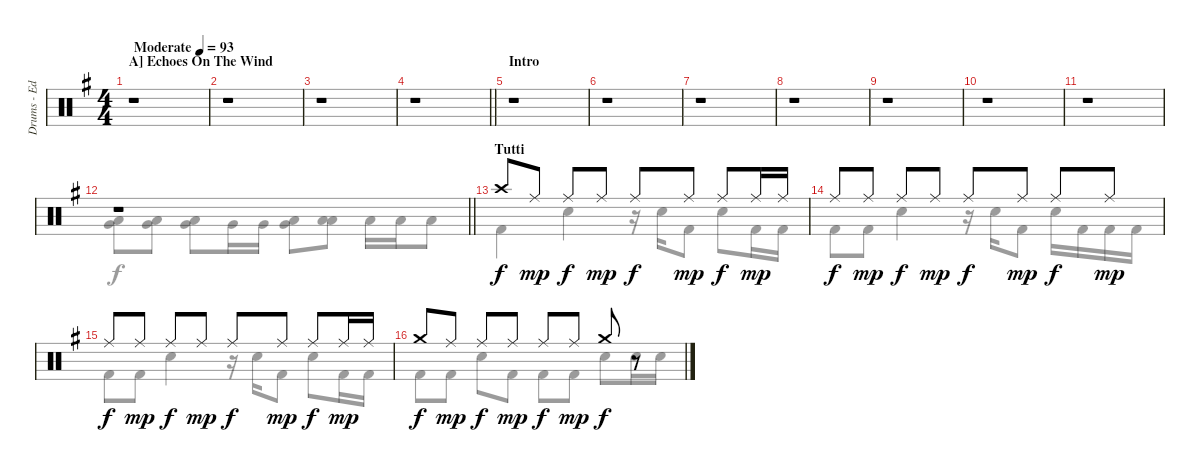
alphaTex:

\track ("Drums - Ed Warby" "Drums - Ed") {instrument percussion}
\staff {score}
\articulation defaults
\voice
\ts (4 4)
\section ("" "A] Echoes On The Wind")
\tempo (93 "Moderate")
\clef neutral
\ks eminor
r.1{dy f} |
r.1 |
r.1 |
\barLineRight lightlight
r.1 |
\section ("" "Intro")
r.1 |
r.1 |
r.1 |
r.1 |
r.1 |
r.1 |
r.1 |
\barLineRight lightlight
r.1 |
\section ("" "Tutti")
"Crash high (hit)".8 "Ride (middle)".8{dy mp} "Ride (middle)".8{dy f} "Ride (middle)".8{dy mp} "Ride (middle)".8{dy f} "Ride (middle)".8{dy mp} "Ride (middle)".8{dy f} "Ride (middle)".16{dy mp} "Ride (middle)".16 |
"Ride (middle)".8{dy f} "Ride (middle)".8{dy mp} "Ride (middle)".8{dy f} "Ride (middle)".8{dy mp} "Ride (middle)".8{dy f} "Ride (middle)".8{dy mp} "Ride (middle)".8{dy f} "Ride (middle)".8{dy mp} |
"Ride (middle)".8{dy f} "Ride (middle)".8{dy mp} "Ride (middle)".8{dy f} "Ride (middle)".8{dy mp} "Ride (middle)".8{dy f} "Ride (middle)".8{dy mp} "Ride (middle)".8{dy f} "Ride (middle)".16{dy mp} "Ride (middle)".16 |
"Crash medium (hit)".8{dy f} "Ride (middle)".8{dy mp} "Ride (middle)".8{dy f} "Ride (middle)".8{dy mp} "Ride (middle)".8{dy f} "Ride (middle)".8{dy mp} "Crash medium (hit)".8{dy f} r.8
\voice
\clef neutral
\ottava regular
\simile none
\ks eminor
|
|
|
\barLineRight lightlight
|
|
|
|
|
|
|
|
\barLineRight lightlight
("Very Low Tom (hit)" "Low Floor Tom (hit)").8 ("Very Low Tom (hit)" "Low Floor Tom (hit)").8 ("Very Low Tom (hit)" "Low Floor Tom (hit)").8 "Very Low Tom (hit)".16 "Very Low Tom (hit)".16 ("Very Low Tom (hit)" "Low Floor Tom (hit)").8 ("Low Floor Tom (hit)" "Low Floor Tom (hit)").8 "Low Floor Tom (hit)".16 "Low Floor Tom (hit)".16 "Low Floor Tom (hit)".8 |
"Kick (hit) 2".4 "Snare (hit) 2".4 r.16 "Snare (hit) 2".16 "Kick (hit) 2".8 "Snare (hit) 2".8 "Kick (hit) 2".16 "Kick (hit) 2".16 |
"Kick (hit) 2".8 "Kick (hit) 2".8 "Snare (hit) 2".4 r.16 "Snare (hit) 2".16 "Kick (hit) 2".8 "Snare (hit) 2".16 "Kick (hit) 2".16 "Kick (hit) 2".16 "Kick (hit) 2".16 |
"Kick (hit) 2".8 "Kick (hit) 2".8 "Snare (hit) 2".4 r.16 "Snare (hit) 2".16 "Kick (hit) 2".8 "Snare (hit) 2".8 "Kick (hit) 2".16 "Kick (hit) 2".16 |
"Kick (hit) 2".8 "Kick (hit) 2".8 "Snare (hit) 2".8 "Kick (hit) 2".8 "Kick (hit) 2".8 "Kick (hit) 2".8 "Snare (hit) 2".8 "Snare (hit) 2".16 "Snare (hit) 2".16
